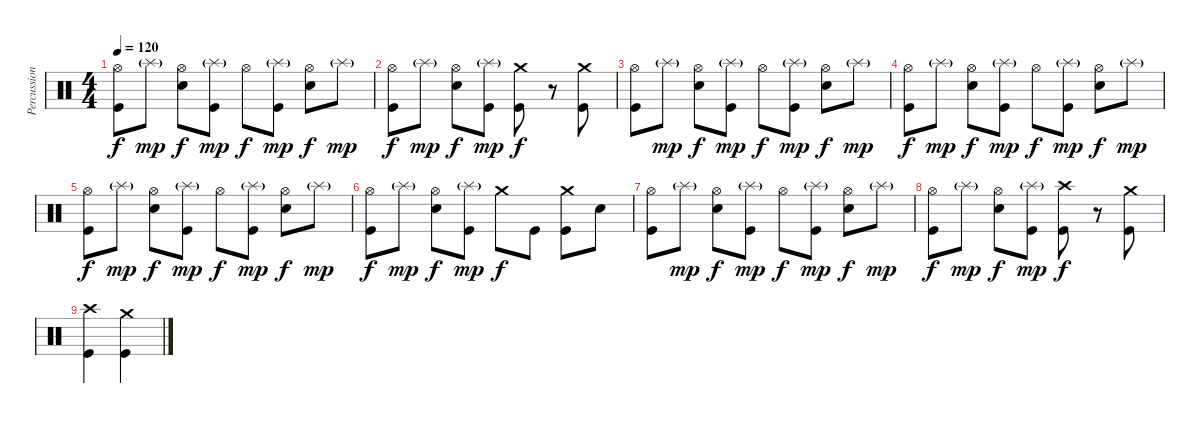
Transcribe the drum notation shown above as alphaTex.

\track ("Percussion" "Percussion") {instrument percussion}
\staff {score}
\articulation defaults
\ts (4 4)
\tempo 120
\clef neutral
\ks c
("Hi-Hat (open)" "Kick (hit)").8{dy f} "Splash (hit)"{g}.8{dy mp} ("Hi-Hat (open)" "Electric Snare (hit)").8{dy f} ("Splash (hit)"{g} "Kick (hit)").8{dy mp} "Hi-Hat (open)".8{dy f} ("Splash (hit)"{g} "Kick (hit)").8{dy mp} ("Hi-Hat (open)" "Electric Snare (hit)").8{dy f} "Splash (hit)"{g}.8{dy mp} |
("Hi-Hat (open)" "Kick (hit)").8{dy f} "Splash (hit)"{g}.8{dy mp} ("Hi-Hat (open)" "Electric Snare (hit)").8{dy f} ("Splash (hit)"{g} "Kick (hit)").8{dy mp} ("Crash medium (hit)" "Kick (hit)").8{dy f} r.8 ("Crash medium (hit)" "Kick (hit)").8 |
("Hi-Hat (open)" "Kick (hit)").8 "Splash (hit)"{g}.8{dy mp} ("Hi-Hat (open)" "Electric Snare (hit)").8{dy f} ("Splash (hit)"{g} "Kick (hit)").8{dy mp} "Hi-Hat (open)".8{dy f} ("Splash (hit)"{g} "Kick (hit)").8{dy mp} ("Hi-Hat (open)" "Electric Snare (hit)").8{dy f} "Splash (hit)"{g}.8{dy mp} |
("Hi-Hat (open)" "Kick (hit)").8{dy f} "Splash (hit)"{g}.8{dy mp} ("Hi-Hat (open)" "Electric Snare (hit)").8{dy f} ("Splash (hit)"{g} "Kick (hit)").8{dy mp} "Hi-Hat (open)".8{dy f} ("Splash (hit)"{g} "Kick (hit)").8{dy mp} ("Hi-Hat (open)" "Electric Snare (hit)").8{dy f} "Splash (hit)"{g}.8{dy mp} |
("Hi-Hat (open)" "Kick (hit)").8{dy f} "Splash (hit)"{g}.8{dy mp} ("Hi-Hat (open)" "Electric Snare (hit)").8{dy f} ("Splash (hit)"{g} "Kick (hit)").8{dy mp} "Hi-Hat (open)".8{dy f} ("Splash (hit)"{g} "Kick (hit)").8{dy mp} ("Hi-Hat (open)" "Electric Snare (hit)").8{dy f} "Splash (hit)"{g}.8{dy mp} |
("Hi-Hat (open)" "Kick (hit)").8{dy f} "Splash (hit)"{g}.8{dy mp} ("Hi-Hat (open)" "Electric Snare (hit)").8{dy f} ("Splash (hit)"{g} "Kick (hit)").8{dy mp} "Crash medium (hit)".8{dy f} "Kick (hit)".8 ("Crash medium (hit)" "Kick (hit)").8 "Electric Snare (hit)".8 |
("Hi-Hat (open)" "Kick (hit)").8 "Splash (hit)"{g}.8{dy mp} ("Hi-Hat (open)" "Electric Snare (hit)").8{dy f} ("Splash (hit)"{g} "Kick (hit)").8{dy mp} "Hi-Hat (open)".8{dy f} ("Splash (hit)"{g} "Kick (hit)").8{dy mp} ("Hi-Hat (open)" "Electric Snare (hit)").8{dy f} "Splash (hit)"{g}.8{dy mp} |
("Hi-Hat (open)" "Kick (hit)").8{dy f} "Splash (hit)"{g}.8{dy mp} ("Hi-Hat (open)" "Electric Snare (hit)").8{dy f} ("Splash (hit)"{g} "Kick (hit)").8{dy mp} ("Crash high (hit)" "Kick (hit)").8{dy f} r.8 ("Crash medium (hit)" "Kick (hit)").8 |
("Crash high (hit)" "Kick (hit)").4 ("Crash medium (hit)" "Kick (hit)").4
